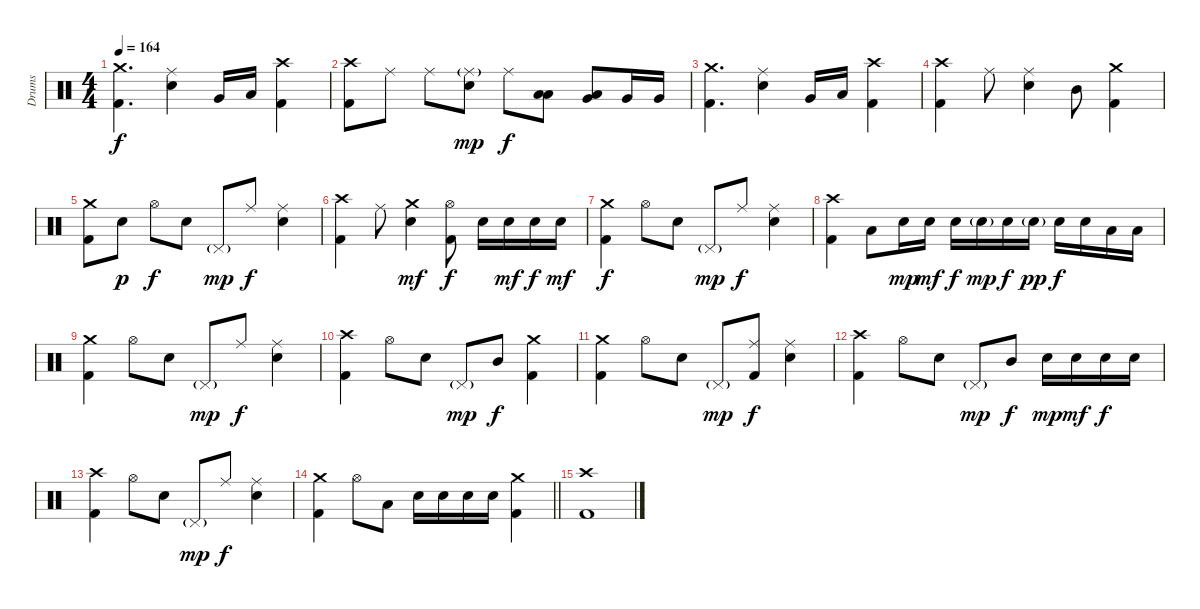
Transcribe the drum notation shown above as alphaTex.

\track ("Drums" "Drums") {instrument percussion}
\staff {score}
\articulation defaults
\ts (4 4)
\tempo 164
\clef neutral
\ks c
("Crash medium (hit)" "Kick (hit) 2").4{d dy f} ("Ride (middle)" "Electric Snare (hit)").4 "Very Low Tom (hit)".16 "Low Floor Tom (hit)".16 ("Crash high (hit)" "Kick (hit) 2").4 |
("Crash high (hit)" "Kick (hit) 2").8 "Ride (middle)".8 "Ride (middle)".8 ("Ride (middle)"{g} "Electric Snare (hit)").8{dy mp} "Ride (middle)".8{dy f} ("Low Tom (hit)" "Low Floor Tom (hit)").8 ("Very Low Tom (hit)" "Low Floor Tom (hit)").8 "Very Low Tom (hit)".16 "Very Low Tom (hit)".16 |
("Crash medium (hit)" "Kick (hit) 2").4{d} ("Ride (middle)" "Electric Snare (hit)").4 "Very Low Tom (hit)".16 "Low Floor Tom (hit)".16 ("Crash high (hit)" "Kick (hit) 2").4 |
("Crash high (hit)" "Kick (hit) 2").4 "Ride (middle)".8 ("Ride (middle)" "Electric Snare (hit)").4 "Mid Tom (hit)".8 ("Crash medium (hit)" "Kick (hit) 2").4 |
("Crash medium (hit)" "Kick (hit) 2").8 "Electric Snare (hit)".8{dy p} "Hi-Hat (open)".8{dy f} "Electric Snare (hit)".8 "Pedal Hi-Hat (hit)"{g}.8{dy mp} "Ride (middle)".8{dy f} ("Ride (middle)" "Electric Snare (hit)").4 |
("Crash high (hit)" "Kick (hit) 2").4 "Ride (middle)".8 ("Crash medium (hit)" "Electric Snare (hit)").4{dy mf} ("Hi-Hat (open)" "Kick (hit) 2").8{dy f} "Electric Snare (hit)".16 "Electric Snare (hit)".16{dy mf} "Electric Snare (hit)".16{dy f} "Electric Snare (hit)".16{dy mf} |
("Crash medium (hit)" "Kick (hit) 2").4{dy f} "Hi-Hat (open)".8 "Electric Snare (hit)".8 "Pedal Hi-Hat (hit)"{g}.8{dy mp} "Ride (middle)".8{dy f} ("Ride (middle)" "Electric Snare (hit)").4 |
("Crash high (hit)" "Kick (hit) 2").4 "Low Tom (hit)".8 "Electric Snare (hit)".16{dy mp} "Electric Snare (hit)".16{dy mf} "Electric Snare (hit)".16{dy f} "Electric Snare (hit)"{g}.16{dy mp} "Electric Snare (hit)".16{dy f} "Electric Snare (hit)"{g}.16{dy pp} "Electric Snare (hit)".16{dy f} "Electric Snare (hit)".16 "Low Tom (hit)".16 "Low Tom (hit)".16 |
("Crash medium (hit)" "Kick (hit) 2").4 "Hi-Hat (open)".8 "Electric Snare (hit)".8 "Pedal Hi-Hat (hit)"{g}.8{dy mp} "Ride (middle)".8{dy f} ("Ride (middle)" "Electric Snare (hit)").4 |
("Crash high (hit)" "Kick (hit) 2").4 "Hi-Hat (open)".8 "Electric Snare (hit)".8 "Pedal Hi-Hat (hit)"{g}.8{dy mp} "Mid Tom (hit)".8{dy f} ("Crash medium (hit)" "Kick (hit) 2").4 |
("Crash medium (hit)" "Kick (hit) 2").4 "Hi-Hat (open)".8 "Electric Snare (hit)".8 "Pedal Hi-Hat (hit)"{g}.8{dy mp} ("Ride (middle)" "Kick (hit) 2").8{dy f} ("Ride (middle)" "Electric Snare (hit)").4 |
("Crash high (hit)" "Kick (hit) 2").4 "Hi-Hat (open)".8 "Electric Snare (hit)".8 "Pedal Hi-Hat (hit)"{g}.8{dy mp} "Mid Tom (hit)".8{dy f} "Electric Snare (hit)".16{dy mp} "Electric Snare (hit)".16{dy mf} "Electric Snare (hit)".16{dy f} "Electric Snare (hit)".16 |
("Crash high (hit)" "Kick (hit) 2").4 "Hi-Hat (open)".8 "Electric Snare (hit)".8 "Pedal Hi-Hat (hit)"{g}.8{dy mp} "Ride (middle)".8{dy f} ("Ride (middle)" "Electric Snare (hit)").4 |
\barLineRight lightlight
("Crash medium (hit)" "Kick (hit) 2").4 "Hi-Hat (open)".8 "Low Tom (hit)".8 "Electric Snare (hit)".16 "Electric Snare (hit)".16 "Electric Snare (hit)".16 "Electric Snare (hit)".16 ("Crash medium (hit)" "Kick (hit) 2").4 |
\section ("" "")
("Crash high (hit)" "Kick (hit) 2").1
